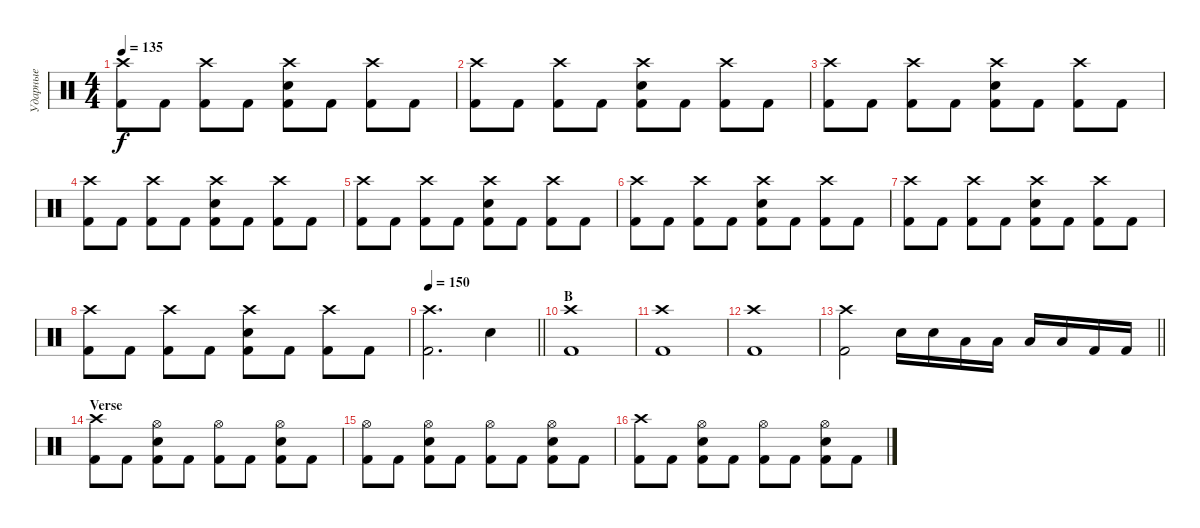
\track ("Ударные" "Ударные") {instrument percussion}
\staff {score}
\articulation defaults
\ts (4 4)
\tempo 135
\clef neutral
\ks c
("Crash high (hit)" "Kick (hit) 2").8{dy f} "Kick (hit) 2".8 ("Crash high (hit)" "Kick (hit) 2").8 "Kick (hit) 2".8 ("Crash high (hit)" "Electric Snare (hit)" "Kick (hit) 2").8 "Kick (hit) 2".8 ("Crash high (hit)" "Kick (hit) 2").8 "Kick (hit) 2".8 |
("Crash high (hit)" "Kick (hit) 2").8 "Kick (hit) 2".8 ("Crash high (hit)" "Kick (hit) 2").8 "Kick (hit) 2".8 ("Crash high (hit)" "Electric Snare (hit)" "Kick (hit) 2").8 "Kick (hit) 2".8 ("Crash high (hit)" "Kick (hit) 2").8 "Kick (hit) 2".8 |
("Crash high (hit)" "Kick (hit) 2").8 "Kick (hit) 2".8 ("Crash high (hit)" "Kick (hit) 2").8 "Kick (hit) 2".8 ("Crash high (hit)" "Electric Snare (hit)" "Kick (hit) 2").8 "Kick (hit) 2".8 ("Crash high (hit)" "Kick (hit) 2").8 "Kick (hit) 2".8 |
("Crash high (hit)" "Kick (hit) 2").8 "Kick (hit) 2".8 ("Crash high (hit)" "Kick (hit) 2").8 "Kick (hit) 2".8 ("Crash high (hit)" "Electric Snare (hit)" "Kick (hit) 2").8 "Kick (hit) 2".8 ("Crash high (hit)" "Kick (hit) 2").8 "Kick (hit) 2".8 |
("Crash high (hit)" "Kick (hit) 2").8 "Kick (hit) 2".8 ("Crash high (hit)" "Kick (hit) 2").8 "Kick (hit) 2".8 ("Crash high (hit)" "Electric Snare (hit)" "Kick (hit) 2").8 "Kick (hit) 2".8 ("Crash high (hit)" "Kick (hit) 2").8 "Kick (hit) 2".8 |
("Crash high (hit)" "Kick (hit) 2").8 "Kick (hit) 2".8 ("Crash high (hit)" "Kick (hit) 2").8 "Kick (hit) 2".8 ("Crash high (hit)" "Electric Snare (hit)" "Kick (hit) 2").8 "Kick (hit) 2".8 ("Crash high (hit)" "Kick (hit) 2").8 "Kick (hit) 2".8 |
("Crash high (hit)" "Kick (hit) 2").8 "Kick (hit) 2".8 ("Crash high (hit)" "Kick (hit) 2").8 "Kick (hit) 2".8 ("Crash high (hit)" "Electric Snare (hit)" "Kick (hit) 2").8 "Kick (hit) 2".8 ("Crash high (hit)" "Kick (hit) 2").8 "Kick (hit) 2".8 |
("Crash high (hit)" "Kick (hit) 2").8 "Kick (hit) 2".8 ("Crash high (hit)" "Kick (hit) 2").8 "Kick (hit) 2".8 ("Crash high (hit)" "Electric Snare (hit)" "Kick (hit) 2").8 "Kick (hit) 2".8 ("Crash high (hit)" "Kick (hit) 2").8 "Kick (hit) 2".8 |
\tempo 150
\barLineRight lightlight
("Crash high (hit)" "Kick (hit) 2").2{d} "Electric Snare (hit)".4 |
\section ("" "B")
("Crash high (hit)" "Kick (hit) 2").1 |
("Crash high (hit)" "Kick (hit) 2").1 |
("Crash high (hit)" "Kick (hit) 2").1 |
\barLineRight lightlight
("Crash high (hit)" "Kick (hit) 2").2 "Electric Snare (hit)".16 "Electric Snare (hit)".16 "Low Tom (hit)".16 "Low Tom (hit)".16 "Low Floor Tom (hit)".16 "Low Floor Tom (hit)".16 "Kick (hit) 2".16 "Kick (hit) 2".16 |
\section ("" "Verse")
("Crash high (hit)" "Kick (hit) 2").8 "Kick (hit) 2".8 ("Hi-Hat (open)" "Electric Snare (hit)" "Kick (hit) 2").8 "Kick (hit) 2".8 ("Hi-Hat (open)" "Kick (hit) 2").8 "Kick (hit) 2".8 ("Hi-Hat (open)" "Electric Snare (hit)" "Kick (hit) 2").8 "Kick (hit) 2".8 |
("Hi-Hat (open)" "Kick (hit) 2").8 "Kick (hit) 2".8 ("Hi-Hat (open)" "Electric Snare (hit)" "Kick (hit) 2").8 "Kick (hit) 2".8 ("Hi-Hat (open)" "Kick (hit) 2").8 "Kick (hit) 2".8 ("Hi-Hat (open)" "Electric Snare (hit)" "Kick (hit) 2").8 "Kick (hit) 2".8 |
("Crash high (hit)" "Kick (hit) 2").8 "Kick (hit) 2".8 ("Hi-Hat (open)" "Electric Snare (hit)" "Kick (hit) 2").8 "Kick (hit) 2".8 ("Hi-Hat (open)" "Kick (hit) 2").8 "Kick (hit) 2".8 ("Hi-Hat (open)" "Electric Snare (hit)" "Kick (hit) 2").8 "Kick (hit) 2".8
